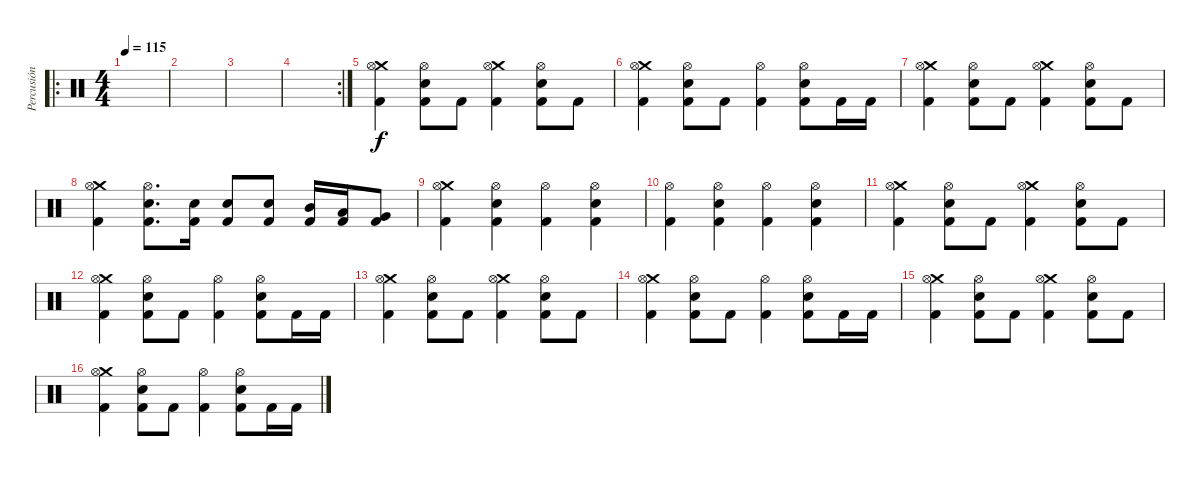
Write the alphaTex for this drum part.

\track ("Percusión" "Percusión") {instrument percussion}
\staff {score}
\articulation defaults
\ro
\ts (4 4)
\tempo 115
\clef neutral
\ks c
|
|
|
\rc 2
|
("Crash medium (hit)" "Hi-Hat (open)" "Kick (hit) 2").4 ("Hi-Hat (open)" "Snare (hit) 2" "Kick (hit) 2").8 "Kick (hit) 2".8 ("Crash medium (hit)" "Hi-Hat (open)" "Kick (hit) 2").4 ("Hi-Hat (open)" "Snare (hit) 2" "Kick (hit) 2").8 "Kick (hit) 2".8 |
("Crash medium (hit)" "Hi-Hat (open)" "Kick (hit) 2").4 ("Hi-Hat (open)" "Snare (hit) 2" "Kick (hit) 2").8 "Kick (hit) 2".8 ("Hi-Hat (open)" "Kick (hit) 2").4 ("Hi-Hat (open)" "Snare (hit) 2" "Kick (hit) 2").8 "Kick (hit) 2".16 "Kick (hit) 2".16 |
("Crash medium (hit)" "Hi-Hat (open)" "Kick (hit) 2").4 ("Hi-Hat (open)" "Snare (hit) 2" "Kick (hit) 2").8 "Kick (hit) 2".8 ("Crash medium (hit)" "Hi-Hat (open)" "Kick (hit) 2").4 ("Hi-Hat (open)" "Snare (hit) 2" "Kick (hit) 2").8 "Kick (hit) 2".8 |
("Crash medium (hit)" "Hi-Hat (open)" "Kick (hit) 2").4 ("Hi-Hat (open)" "Snare (hit) 2" "Kick (hit) 2").8{d} ("Snare (hit) 2" "Kick (hit) 2").16 ("Snare (hit) 2" "Kick (hit) 2").8 ("Snare (hit) 2" "Kick (hit) 2").8 ("Mid Tom (hit)" "Kick (hit) 2").16 ("Low Tom (hit)" "Kick (hit) 2").16 ("Very Low Tom (hit)" "Kick (hit) 2").8 |
("Crash medium (hit)" "Hi-Hat (open)" "Kick (hit) 2").4 ("Hi-Hat (open)" "Snare (hit) 2" "Kick (hit) 2").4 ("Hi-Hat (open)" "Kick (hit) 2").4 ("Hi-Hat (open)" "Snare (hit) 2" "Kick (hit) 2").4 |
("Hi-Hat (open)" "Kick (hit) 2").4 ("Hi-Hat (open)" "Snare (hit) 2" "Kick (hit) 2").4 ("Hi-Hat (open)" "Kick (hit) 2").4 ("Hi-Hat (open)" "Snare (hit) 2" "Kick (hit) 2").4 |
("Crash medium (hit)" "Hi-Hat (open)" "Kick (hit) 2").4 ("Hi-Hat (open)" "Snare (hit) 2" "Kick (hit) 2").8 "Kick (hit) 2".8 ("Crash medium (hit)" "Hi-Hat (open)" "Kick (hit) 2").4 ("Hi-Hat (open)" "Snare (hit) 2" "Kick (hit) 2").8 "Kick (hit) 2".8 |
("Crash medium (hit)" "Hi-Hat (open)" "Kick (hit) 2").4 ("Hi-Hat (open)" "Snare (hit) 2" "Kick (hit) 2").8 "Kick (hit) 2".8 ("Hi-Hat (open)" "Kick (hit) 2").4 ("Hi-Hat (open)" "Snare (hit) 2" "Kick (hit) 2").8 "Kick (hit) 2".16 "Kick (hit) 2".16 |
("Crash medium (hit)" "Hi-Hat (open)" "Kick (hit) 2").4 ("Hi-Hat (open)" "Snare (hit) 2" "Kick (hit) 2").8 "Kick (hit) 2".8 ("Crash medium (hit)" "Hi-Hat (open)" "Kick (hit) 2").4 ("Hi-Hat (open)" "Snare (hit) 2" "Kick (hit) 2").8 "Kick (hit) 2".8 |
("Crash medium (hit)" "Hi-Hat (open)" "Kick (hit) 2").4 ("Hi-Hat (open)" "Snare (hit) 2" "Kick (hit) 2").8 "Kick (hit) 2".8 ("Hi-Hat (open)" "Kick (hit) 2").4 ("Hi-Hat (open)" "Snare (hit) 2" "Kick (hit) 2").8 "Kick (hit) 2".16 "Kick (hit) 2".16 |
("Crash medium (hit)" "Hi-Hat (open)" "Kick (hit) 2").4 ("Hi-Hat (open)" "Snare (hit) 2" "Kick (hit) 2").8 "Kick (hit) 2".8 ("Crash medium (hit)" "Hi-Hat (open)" "Kick (hit) 2").4 ("Hi-Hat (open)" "Snare (hit) 2" "Kick (hit) 2").8 "Kick (hit) 2".8 |
("Crash medium (hit)" "Hi-Hat (open)" "Kick (hit) 2").4 ("Hi-Hat (open)" "Snare (hit) 2" "Kick (hit) 2").8 "Kick (hit) 2".8 ("Hi-Hat (open)" "Kick (hit) 2").4 ("Hi-Hat (open)" "Snare (hit) 2" "Kick (hit) 2").8 "Kick (hit) 2".16 "Kick (hit) 2".16
